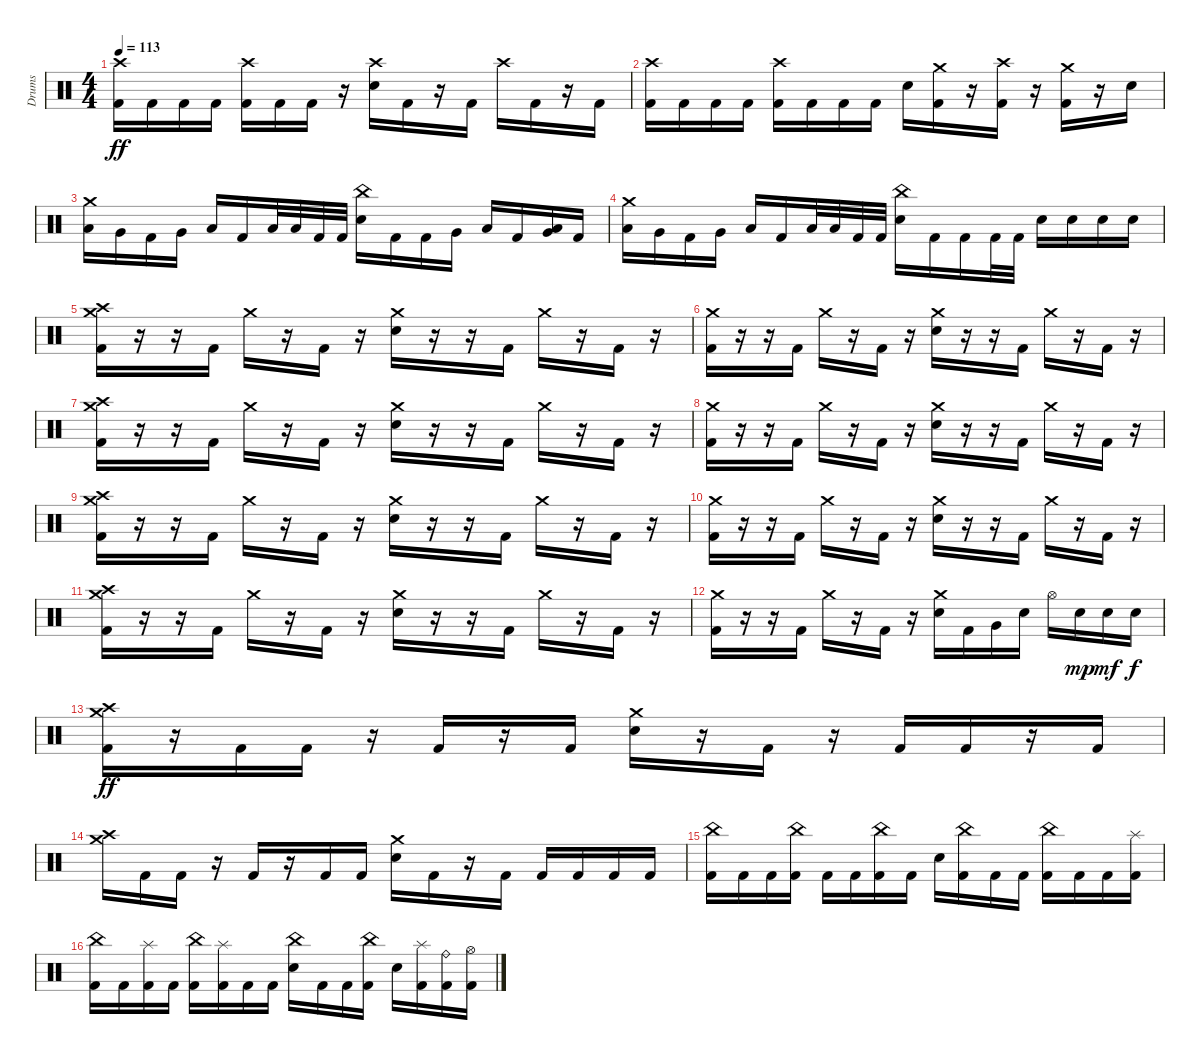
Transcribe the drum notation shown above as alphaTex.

\track ("Drums" "Drums") {instrument percussion}
\staff {score}
\articulation defaults
\ts (4 4)
\tempo 113
\clef neutral
\ks c
("Crash high (hit)" "Kick (hit) 2").16{dy ff} "Kick (hit) 2".16 "Kick (hit) 2".16 "Kick (hit) 2".16 ("Crash high (hit)" "Kick (hit) 2").16 "Kick (hit) 2".16 "Kick (hit) 2".16 r.16 ("Crash high (hit)" "Snare (hit) 2").16 "Kick (hit) 2".16 r.16 "Kick (hit) 2".16 "Crash high (hit)".16 "Kick (hit) 2".16 r.16 "Kick (hit) 2".16 |
("Crash high (hit)" "Kick (hit) 2").16 "Kick (hit) 2".16 "Kick (hit) 2".16 "Kick (hit) 2".16 ("Crash high (hit)" "Kick (hit) 2").16 "Kick (hit) 2".16 "Kick (hit) 2".16 "Kick (hit) 2".16 "Snare (hit) 2".16 ("Crash medium (hit)" "Kick (hit) 2").16 r.16 ("Crash high (hit)" "Kick (hit) 2").16 r.16 ("Crash medium (hit)" "Kick (hit) 2").16 r.16 "Snare (hit) 2".16 |
("Crash medium (hit)" "Low Tom (hit)").16 "Very Low Tom (hit)".16 "Kick (hit) 2".16 "Very Low Tom (hit)".16 "Low Floor Tom (hit)".16 "Kick (hit) 2".16 "Low Floor Tom (hit)".32 "Low Floor Tom (hit)".32 "Kick (hit) 2".32 "Kick (hit) 2".32 ("China (hit)" "Snare (hit) 2").16 "Kick (hit) 2".16 "Kick (hit) 2".16 "Very Low Tom (hit)".16 "Low Floor Tom (hit)".16 "Kick (hit) 2".16 ("Very Low Tom (hit)" "Low Floor Tom (hit)").16 "Kick (hit) 2".16 |
("Crash medium (hit)" "Low Tom (hit)").16 "Very Low Tom (hit)".16 "Kick (hit) 2".16 "Very Low Tom (hit)".16 "Low Floor Tom (hit)".16 "Kick (hit) 2".16 "Low Floor Tom (hit)".32 "Low Floor Tom (hit)".32 "Kick (hit) 2".32 "Kick (hit) 2".32 ("China (hit)" "Snare (hit) 2").16 "Kick (hit) 2".16 "Kick (hit) 2".16 "Kick (hit) 2".32 "Kick (hit) 2".32 "Snare (hit) 2".16 "Snare (hit) 2".16 "Snare (hit) 2".16 "Snare (hit) 2".16 |
("Crash medium (hit)" "Crash high (hit)" "Kick (hit) 2").16 r.16 r.16 "Kick (hit) 2".16 "Crash medium (hit)".16 r.16 "Kick (hit) 2".16 r.16 ("Crash medium (hit)" "Snare (hit) 2").16 r.16 r.16 "Kick (hit) 2".16 "Crash medium (hit)".16 r.16 "Kick (hit) 2".16 r.16 |
("Crash medium (hit)" "Kick (hit) 2").16 r.16 r.16 "Kick (hit) 2".16 "Crash medium (hit)".16 r.16 "Kick (hit) 2".16 r.16 ("Crash medium (hit)" "Snare (hit) 2").16 r.16 r.16 "Kick (hit) 2".16 "Crash medium (hit)".16 r.16 "Kick (hit) 2".16 r.16 |
("Crash medium (hit)" "Crash high (hit)" "Kick (hit) 2").16 r.16 r.16 "Kick (hit) 2".16 "Crash medium (hit)".16 r.16 "Kick (hit) 2".16 r.16 ("Crash medium (hit)" "Snare (hit) 2").16 r.16 r.16 "Kick (hit) 2".16 "Crash medium (hit)".16 r.16 "Kick (hit) 2".16 r.16 |
("Crash medium (hit)" "Kick (hit) 2").16 r.16 r.16 "Kick (hit) 2".16 "Crash medium (hit)".16 r.16 "Kick (hit) 2".16 r.16 ("Crash medium (hit)" "Snare (hit) 2").16 r.16 r.16 "Kick (hit) 2".16 "Crash medium (hit)".16 r.16 "Kick (hit) 2".16 r.16 |
("Crash medium (hit)" "Crash high (hit)" "Kick (hit) 2").16 r.16 r.16 "Kick (hit) 2".16 "Crash medium (hit)".16 r.16 "Kick (hit) 2".16 r.16 ("Crash medium (hit)" "Snare (hit) 2").16 r.16 r.16 "Kick (hit) 2".16 "Crash medium (hit)".16 r.16 "Kick (hit) 2".16 r.16 |
("Crash medium (hit)" "Kick (hit) 2").16 r.16 r.16 "Kick (hit) 2".16 "Crash medium (hit)".16 r.16 "Kick (hit) 2".16 r.16 ("Crash medium (hit)" "Snare (hit) 2").16 r.16 r.16 "Kick (hit) 2".16 "Crash medium (hit)".16 r.16 "Kick (hit) 2".16 r.16 |
("Crash medium (hit)" "Crash high (hit)" "Kick (hit) 2").16 r.16 r.16 "Kick (hit) 2".16 "Crash medium (hit)".16 r.16 "Kick (hit) 2".16 r.16 ("Crash medium (hit)" "Snare (hit) 2").16 r.16 r.16 "Kick (hit) 2".16 "Crash medium (hit)".16 r.16 "Kick (hit) 2".16 r.16 |
("Crash medium (hit)" "Kick (hit) 2").16 r.16 r.16 "Kick (hit) 2".16 "Crash medium (hit)".16 r.16 "Kick (hit) 2".16 r.16 ("Crash medium (hit)" "Snare (hit) 2").16 "Kick (hit) 2".16 "Very Low Tom (hit)".16 "Snare (hit) 2".16 "Hi-Hat (open)".16 "Snare (hit) 2".16{dy mp} "Snare (hit) 2".16{dy mf} "Snare (hit) 2".16{dy f} |
("Crash medium (hit)" "Crash high (hit)" "Kick (hit) 2").16{dy ff} r.16 "Kick (hit) 2".16 "Kick (hit) 2".16 r.16 "Kick (hit) 2".16 r.16 "Kick (hit) 2".16 ("Crash medium (hit)" "Snare (hit) 2").16 r.16 "Kick (hit) 2".16 r.16 "Kick (hit) 2".16 "Kick (hit) 2".16 r.16 "Kick (hit) 2".16 |
("Crash medium (hit)" "Crash high (hit)").16 "Kick (hit) 2".16 "Kick (hit) 2".16 r.16 "Kick (hit) 2".16 r.16 "Kick (hit) 2".16 "Kick (hit) 2".16 ("Crash medium (hit)" "Snare (hit) 2").16 "Kick (hit) 2".16 r.16 "Kick (hit) 2".16 "Kick (hit) 2".16 "Kick (hit) 2".16 "Kick (hit) 2".16 "Kick (hit) 2".16 |
("China (hit)" "Kick (hit) 2").16 "Kick (hit) 2".16 "Kick (hit) 2".16 ("China (hit)" "Kick (hit) 2").16 "Kick (hit) 2".16 "Kick (hit) 2".16 ("China (hit)" "Kick (hit) 2").16 "Kick (hit) 2".16 "Snare (hit) 2".16 ("China (hit)" "Kick (hit) 2").16 "Kick (hit) 2".16 "Kick (hit) 2".16 ("China (hit)" "Kick (hit) 2").16 "Kick (hit) 2".16 "Kick (hit) 2".16 ("Splash (hit)" "Kick (hit) 2").16 |
("China (hit)" "Kick (hit) 2").16 "Kick (hit) 2".16 ("Splash (hit)" "Kick (hit) 2").16 "Kick (hit) 2".16 ("China (hit)" "Kick (hit) 2").16 ("Splash (hit)" "Kick (hit) 2").16 "Kick (hit) 2".16 "Kick (hit) 2".16 ("China (hit)" "Snare (hit) 2").16 "Kick (hit) 2".16 "Kick (hit) 2".16 ("China (hit)" "Kick (hit) 2").16 "Snare (hit) 2".16 ("Splash (hit)" "Kick (hit) 2").16 ("Ride (bell)" "Kick (hit) 2").16 ("Hi-Hat (open)" "Kick (hit) 2").16
